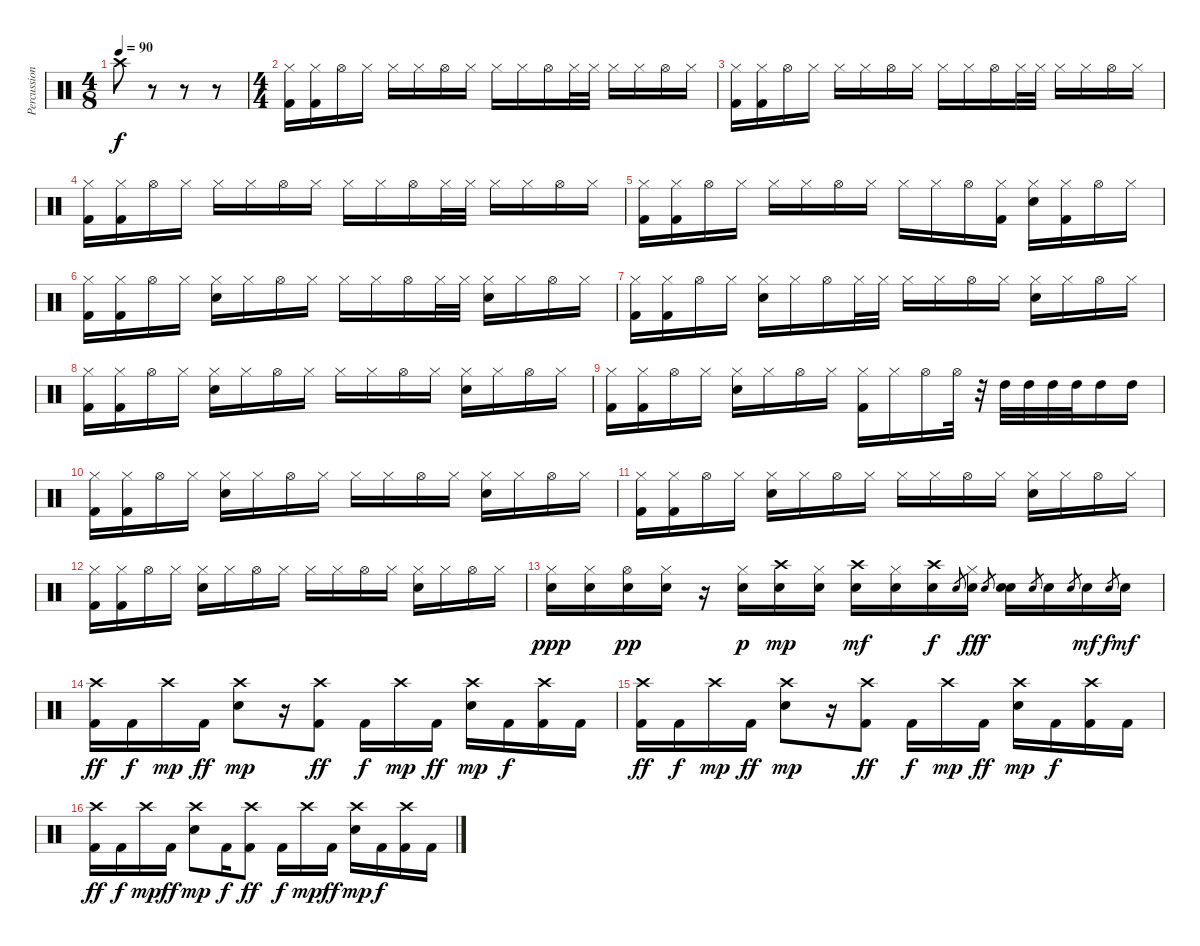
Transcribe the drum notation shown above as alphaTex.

\track ("Percussion" "Percussion") {instrument percussion}
\staff {score}
\articulation defaults
\ts (4 8)
\tempo 90
\clef neutral
\ks c "Crash high (hit)".8{dy f}
r.8 r.8 r.8 |
\ts (4 4)
("Hi-Hat (closed)" "Kick (hit) 2").16 ("Hi-Hat (closed)" "Kick (hit) 2").16 "Hi-Hat (open)".16 "Hi-Hat (closed)".16 "Hi-Hat (closed)".16 "Hi-Hat (closed)".16 "Hi-Hat (open)".16 "Hi-Hat (closed)".16 "Hi-Hat (closed)".16 "Hi-Hat (closed)".16 "Hi-Hat (open)".16 "Hi-Hat (closed)".32 "Hi-Hat (closed)".32 "Hi-Hat (closed)".16 "Hi-Hat (closed)".16 "Hi-Hat (open)".16 "Hi-Hat (closed)".16 |
("Hi-Hat (closed)" "Kick (hit) 2").16 ("Hi-Hat (closed)" "Kick (hit) 2").16 "Hi-Hat (open)".16 "Hi-Hat (closed)".16 "Hi-Hat (closed)".16 "Hi-Hat (closed)".16 "Hi-Hat (open)".16 "Hi-Hat (closed)".16 "Hi-Hat (closed)".16 "Hi-Hat (closed)".16 "Hi-Hat (open)".16 "Hi-Hat (closed)".32 "Hi-Hat (closed)".32 "Hi-Hat (closed)".16 "Hi-Hat (closed)".16 "Hi-Hat (open)".16 "Hi-Hat (closed)".16 |
("Hi-Hat (closed)" "Kick (hit) 2").16 ("Hi-Hat (closed)" "Kick (hit) 2").16 "Hi-Hat (open)".16 "Hi-Hat (closed)".16 "Hi-Hat (closed)".16 "Hi-Hat (closed)".16 "Hi-Hat (open)".16 "Hi-Hat (closed)".16 "Hi-Hat (closed)".16 "Hi-Hat (closed)".16 "Hi-Hat (open)".16 "Hi-Hat (closed)".32 "Hi-Hat (closed)".32 "Hi-Hat (closed)".16 "Hi-Hat (closed)".16 "Hi-Hat (open)".16 "Hi-Hat (closed)".16 |
("Hi-Hat (closed)" "Kick (hit) 2").16 ("Hi-Hat (closed)" "Kick (hit) 2").16 "Hi-Hat (open)".16 "Hi-Hat (closed)".16 "Hi-Hat (closed)".16 "Hi-Hat (closed)".16 "Hi-Hat (open)".16 "Hi-Hat (closed)".16 "Hi-Hat (closed)".16 "Hi-Hat (closed)".16 "Hi-Hat (open)".16 ("Hi-Hat (closed)" "Kick (hit) 2").16 ("Hi-Hat (closed)" "Electric Snare (hit)").16 ("Hi-Hat (closed)" "Kick (hit) 2").16 "Hi-Hat (open)".16 "Hi-Hat (closed)".16 |
("Hi-Hat (closed)" "Kick (hit) 2").16 ("Hi-Hat (closed)" "Kick (hit) 2").16 "Hi-Hat (open)".16 "Hi-Hat (closed)".16 ("Hi-Hat (closed)" "Electric Snare (hit)").16 "Hi-Hat (closed)".16 "Hi-Hat (open)".16 "Hi-Hat (closed)".16 "Hi-Hat (closed)".16 "Hi-Hat (closed)".16 "Hi-Hat (open)".16 "Hi-Hat (closed)".32 "Hi-Hat (closed)".32 ("Hi-Hat (closed)" "Electric Snare (hit)").16 "Hi-Hat (closed)".16 "Hi-Hat (open)".16 "Hi-Hat (closed)".16 |
("Hi-Hat (closed)" "Kick (hit) 2").16 ("Hi-Hat (closed)" "Kick (hit) 2").16 "Hi-Hat (open)".16 "Hi-Hat (closed)".16 ("Hi-Hat (closed)" "Electric Snare (hit)").16 "Hi-Hat (closed)".16 "Hi-Hat (open)".16 "Hi-Hat (closed)".32 "Hi-Hat (closed)".32 "Hi-Hat (closed)".16 "Hi-Hat (closed)".16 "Hi-Hat (open)".16 "Hi-Hat (closed)".16 ("Hi-Hat (closed)" "Electric Snare (hit)").16 "Hi-Hat (closed)".16 "Hi-Hat (open)".16 "Hi-Hat (closed)".16 |
("Hi-Hat (closed)" "Kick (hit) 2").16 ("Hi-Hat (closed)" "Kick (hit) 2").16 "Hi-Hat (open)".16 "Hi-Hat (closed)".16 ("Hi-Hat (closed)" "Electric Snare (hit)").16 "Hi-Hat (closed)".16 "Hi-Hat (open)".16 "Hi-Hat (closed)".16 "Hi-Hat (closed)".16 "Hi-Hat (closed)".16 "Hi-Hat (open)".16 "Hi-Hat (closed)".16 ("Hi-Hat (closed)" "Electric Snare (hit)").16 "Hi-Hat (closed)".16 "Hi-Hat (open)".16 "Hi-Hat (closed)".16 |
("Hi-Hat (closed)" "Kick (hit) 2").16 ("Hi-Hat (closed)" "Kick (hit) 2").16 "Hi-Hat (open)".16 "Hi-Hat (closed)".16 ("Hi-Hat (closed)" "Electric Snare (hit)").16 "Hi-Hat (closed)".16 "Hi-Hat (open)".16 "Hi-Hat (closed)".16 ("Hi-Hat (closed)" "Kick (hit) 2").16 "Hi-Hat (closed)".16 "Hi-Hat (open)".16 "Hi-Hat (open)".32 r.32 "High Tom (hit)".32 "High Tom (hit)".32 "High Tom (hit)".32 "High Tom (hit)".32 "High Tom (hit)".16 "High Tom (hit)".16 |
("Hi-Hat (closed)" "Kick (hit) 2").16 ("Hi-Hat (closed)" "Kick (hit) 2").16 "Hi-Hat (open)".16 "Hi-Hat (closed)".16 ("Hi-Hat (closed)" "Electric Snare (hit)").16 "Hi-Hat (closed)".16 "Hi-Hat (open)".16 "Hi-Hat (closed)".16 "Hi-Hat (closed)".16 "Hi-Hat (closed)".16 "Hi-Hat (open)".16 "Hi-Hat (closed)".16 ("Hi-Hat (closed)" "Electric Snare (hit)").16 "Hi-Hat (closed)".16 "Hi-Hat (open)".16 "Hi-Hat (closed)".16 |
("Hi-Hat (closed)" "Kick (hit) 2").16 ("Hi-Hat (closed)" "Kick (hit) 2").16 "Hi-Hat (open)".16 "Hi-Hat (closed)".16 ("Hi-Hat (closed)" "Electric Snare (hit)").16 "Hi-Hat (closed)".16 "Hi-Hat (open)".16 "Hi-Hat (closed)".16 "Hi-Hat (closed)".16 "Hi-Hat (closed)".16 "Hi-Hat (open)".16 "Hi-Hat (closed)".16 ("Hi-Hat (closed)" "Electric Snare (hit)").16 "Hi-Hat (closed)".16 "Hi-Hat (open)".16 "Hi-Hat (closed)".16 |
("Hi-Hat (closed)" "Kick (hit) 2").16 ("Hi-Hat (closed)" "Kick (hit) 2").16 "Hi-Hat (open)".16 "Hi-Hat (closed)".16 ("Hi-Hat (closed)" "Electric Snare (hit)").16 "Hi-Hat (closed)".16 "Hi-Hat (open)".16 "Hi-Hat (closed)".16 "Hi-Hat (closed)".16 "Hi-Hat (closed)".16 "Hi-Hat (open)".16 "Hi-Hat (closed)".16 ("Hi-Hat (closed)" "Electric Snare (hit)").16 "Hi-Hat (closed)".16 "Hi-Hat (open)".16 "Hi-Hat (closed)".16 |
("Hi-Hat (closed)" "Electric Snare (hit)").16{dy ppp} ("Hi-Hat (closed)" "Electric Snare (hit)").16 ("Hi-Hat (open)" "Electric Snare (hit)").16{dy pp} ("Hi-Hat (closed)" "Electric Snare (hit)").16 r.16 ("Hi-Hat (closed)" "Electric Snare (hit)").16{dy p} ("Crash high (hit)" "Electric Snare (hit)").16{dy mp} ("Hi-Hat (closed)" "Electric Snare (hit)").16 ("Crash high (hit)" "Electric Snare (hit)").16{dy mf} ("Hi-Hat (closed)" "Electric Snare (hit)").16 ("Crash high (hit)" "Electric Snare (hit)").16{dy f} "Electric Snare (hit)".8{gr} ("Hi-Hat (closed)" "Electric Snare (hit)").16{dy ff} "Electric Snare (hit)".8{gr dy f} ("Electric Snare (hit)" "Snare (hit)").16 "Electric Snare (hit)".8{gr} "Electric Snare (hit)".16 "Electric Snare (hit)".8{gr} "Electric Snare (hit)".16{dy mf} "Electric Snare (hit)".8{gr dy f} "Electric Snare (hit)".16{dy mf} |
("Crash high (hit)" "Kick (hit) 2").16{dy ff} "Kick (hit) 2".16{dy f} "Crash high (hit)".16{dy mp} "Kick (hit) 2".16{dy ff} ("Crash high (hit)" "Electric Snare (hit)").8{dy mp} r.16 ("Crash high (hit)" "Kick (hit) 2").8{dy ff} "Kick (hit) 2".16{dy f} "Crash high (hit)".16{dy mp} "Kick (hit) 2".16{dy ff} ("Crash high (hit)" "Electric Snare (hit)").16{dy mp} "Kick (hit) 2".16{dy f} ("Crash high (hit)" "Kick (hit) 2").16 "Kick (hit) 2".16 |
("Crash high (hit)" "Kick (hit) 2").16{dy ff} "Kick (hit) 2".16{dy f} "Crash high (hit)".16{dy mp} "Kick (hit) 2".16{dy ff} ("Crash high (hit)" "Electric Snare (hit)").8{dy mp} r.16 ("Crash high (hit)" "Kick (hit) 2").8{dy ff} "Kick (hit) 2".16{dy f} "Crash high (hit)".16{dy mp} "Kick (hit) 2".16{dy ff} ("Crash high (hit)" "Electric Snare (hit)").16{dy mp} "Kick (hit) 2".16{dy f} ("Crash high (hit)" "Kick (hit) 2").16 "Kick (hit) 2".16 |
("Crash high (hit)" "Kick (hit) 2").16{dy ff} "Kick (hit) 2".16{dy f} "Crash high (hit)".16{dy mp} "Kick (hit) 2".16{dy ff} ("Crash high (hit)" "Electric Snare (hit)").8{dy mp} "Kick (hit) 2".16{dy f} ("Crash high (hit)" "Kick (hit) 2").8{dy ff} "Kick (hit) 2".16{dy f} "Crash high (hit)".16{dy mp} "Kick (hit) 2".16{dy ff} ("Crash high (hit)" "Electric Snare (hit)").16{dy mp} "Kick (hit) 2".16{dy f} ("Crash high (hit)" "Kick (hit) 2").16 "Kick (hit) 2".16
